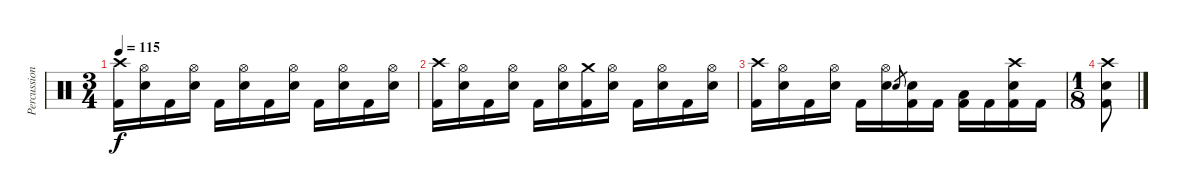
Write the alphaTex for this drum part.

\track ("Percussion" "Percussion") {instrument percussion}
\staff {score}
\articulation defaults
\ts (3 4)
\tempo 115
\clef neutral
\ks c
("Crash high (hit)" "Kick (hit) 2").16{dy f} ("Hi-Hat (open)" "Electric Snare (hit)").16 "Kick (hit) 2".16 ("Hi-Hat (open)" "Electric Snare (hit)").16 "Kick (hit) 2".16 ("Hi-Hat (open)" "Electric Snare (hit)").16 "Kick (hit) 2".16 ("Hi-Hat (open)" "Electric Snare (hit)").16 "Kick (hit) 2".16 ("Hi-Hat (open)" "Electric Snare (hit)").16 "Kick (hit) 2".16 ("Hi-Hat (open)" "Electric Snare (hit)").16 |
("Crash high (hit)" "Kick (hit) 2").16 ("Hi-Hat (open)" "Electric Snare (hit)").16 "Kick (hit) 2".16 ("Hi-Hat (open)" "Electric Snare (hit)").16 "Kick (hit) 2".16 ("Hi-Hat (open)" "Electric Snare (hit)").16 ("Crash medium (hit)" "Kick (hit) 2").16 ("Hi-Hat (open)" "Electric Snare (hit)").16 "Kick (hit) 2".16 ("Hi-Hat (open)" "Electric Snare (hit)").16 "Kick (hit) 2".16 ("Hi-Hat (open)" "Electric Snare (hit)").16 |
("Crash high (hit)" "Kick (hit) 2").16 ("Hi-Hat (open)" "Electric Snare (hit)").16 "Kick (hit) 2".16 ("Hi-Hat (open)" "Electric Snare (hit)").16 "Kick (hit) 2".16 ("Hi-Hat (open)" "Electric Snare (hit)").16 "Electric Snare (hit)".8{gr} ("Electric Snare (hit)" "Kick (hit) 2").16 "Kick (hit) 2".16 ("Low Tom (hit)" "Kick (hit) 2").16 "Kick (hit) 2".16 ("Crash high (hit)" "Electric Snare (hit)" "Kick (hit) 2").16 "Kick (hit) 2".16 |
\ts (1 8)
("Crash high (hit)" "Electric Snare (hit)" "Kick (hit) 2").8
